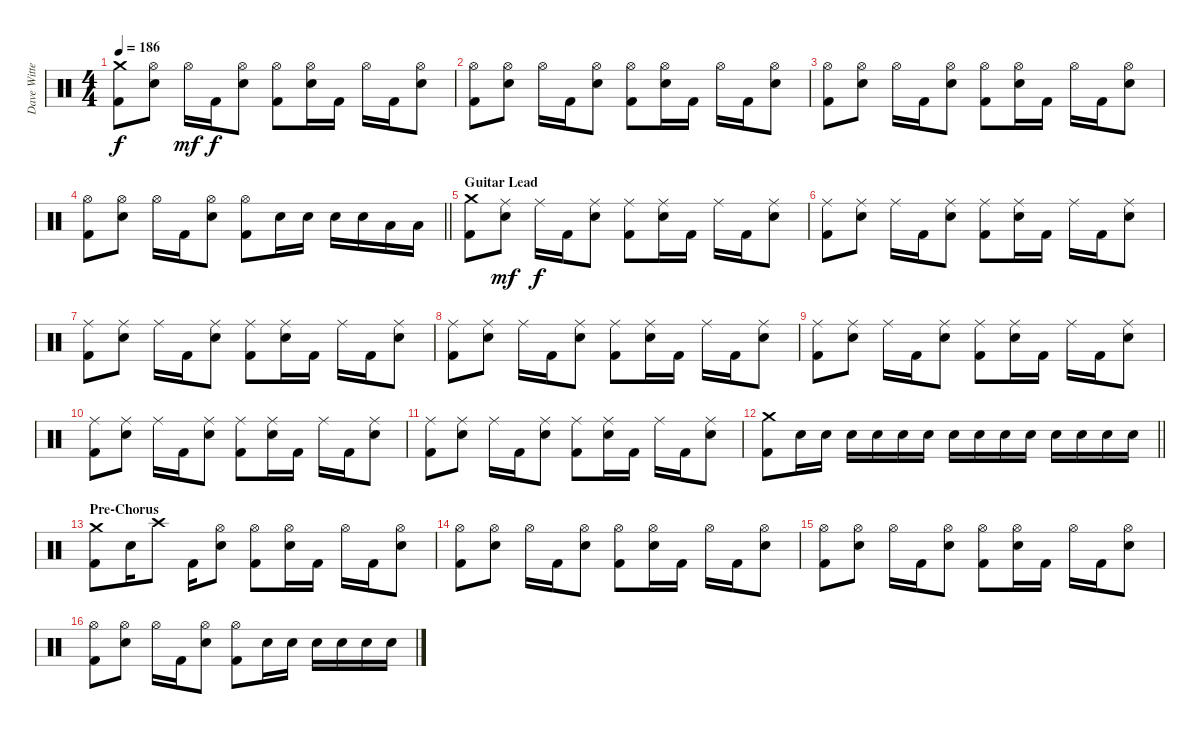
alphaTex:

\track ("Dave Witte" "Dave Witte") {instrument percussion}
\staff {score}
\articulation defaults
\ts (4 4)
\tempo 186
\clef neutral
\ks c
("Crash medium (hit)" "Kick (hit) 2").8{dy f} ("Hi-Hat (open)" "Electric Snare (hit)").8 "Hi-Hat (open)".16{dy mf} "Kick (hit) 2".16{dy f} ("Hi-Hat (open)" "Electric Snare (hit)").8 ("Hi-Hat (open)" "Kick (hit) 2").8 ("Hi-Hat (open)" "Electric Snare (hit)").16 "Kick (hit) 2".16 "Hi-Hat (open)".16 "Kick (hit) 2".16 ("Hi-Hat (open)" "Electric Snare (hit)").8 |
("Hi-Hat (open)" "Kick (hit) 2").8 ("Hi-Hat (open)" "Electric Snare (hit)").8 "Hi-Hat (open)".16 "Kick (hit) 2".16 ("Hi-Hat (open)" "Electric Snare (hit)").8 ("Hi-Hat (open)" "Kick (hit) 2").8 ("Hi-Hat (open)" "Electric Snare (hit)").16 "Kick (hit) 2".16 "Hi-Hat (open)".16 "Kick (hit) 2".16 ("Hi-Hat (open)" "Electric Snare (hit)").8 |
("Hi-Hat (open)" "Kick (hit) 2").8 ("Hi-Hat (open)" "Electric Snare (hit)").8 "Hi-Hat (open)".16 "Kick (hit) 2".16 ("Hi-Hat (open)" "Electric Snare (hit)").8 ("Hi-Hat (open)" "Kick (hit) 2").8 ("Hi-Hat (open)" "Electric Snare (hit)").16 "Kick (hit) 2".16 "Hi-Hat (open)".16 "Kick (hit) 2".16 ("Hi-Hat (open)" "Electric Snare (hit)").8 |
\barLineRight lightlight
("Hi-Hat (open)" "Kick (hit) 2").8 ("Hi-Hat (open)" "Electric Snare (hit)").8 "Hi-Hat (open)".16 "Kick (hit) 2".16 ("Hi-Hat (open)" "Electric Snare (hit)").8 ("Hi-Hat (open)" "Kick (hit) 2").8 "Electric Snare (hit)".16 "Electric Snare (hit)".16 "Electric Snare (hit)".16 "Electric Snare (hit)".16 "Low Tom (hit)".16 "Low Tom (hit)".16 |
\section ("" "Guitar Lead")
("Crash medium (hit)" "Kick (hit) 2").8 ("Ride (middle)" "Electric Snare (hit)").8{dy mf} "Ride (middle)".16{dy f} "Kick (hit) 2".16 ("Ride (middle)" "Electric Snare (hit)").8 ("Ride (middle)" "Kick (hit) 2").8 ("Ride (middle)" "Electric Snare (hit)").16 "Kick (hit) 2".16 "Ride (middle)".16 "Kick (hit) 2".16 ("Ride (middle)" "Electric Snare (hit)").8 |
("Ride (middle)" "Kick (hit) 2").8 ("Ride (middle)" "Electric Snare (hit)").8 "Ride (middle)".16 "Kick (hit) 2".16 ("Ride (middle)" "Electric Snare (hit)").8 ("Ride (middle)" "Kick (hit) 2").8 ("Ride (middle)" "Electric Snare (hit)").16 "Kick (hit) 2".16 "Ride (middle)".16 "Kick (hit) 2".16 ("Ride (middle)" "Electric Snare (hit)").8 |
("Ride (middle)" "Kick (hit) 2").8 ("Ride (middle)" "Electric Snare (hit)").8 "Ride (middle)".16 "Kick (hit) 2".16 ("Ride (middle)" "Electric Snare (hit)").8 ("Ride (middle)" "Kick (hit) 2").8 ("Ride (middle)" "Electric Snare (hit)").16 "Kick (hit) 2".16 "Ride (middle)".16 "Kick (hit) 2".16 ("Ride (middle)" "Electric Snare (hit)").8 |
("Ride (middle)" "Kick (hit) 2").8 ("Ride (middle)" "Electric Snare (hit)").8 "Ride (middle)".16 "Kick (hit) 2".16 ("Ride (middle)" "Electric Snare (hit)").8 ("Ride (middle)" "Kick (hit) 2").8 ("Ride (middle)" "Electric Snare (hit)").16 "Kick (hit) 2".16 "Ride (middle)".16 "Kick (hit) 2".16 ("Ride (middle)" "Electric Snare (hit)").8 |
("Ride (middle)" "Kick (hit) 2").8 ("Ride (middle)" "Electric Snare (hit)").8 "Ride (middle)".16 "Kick (hit) 2".16 ("Ride (middle)" "Electric Snare (hit)").8 ("Ride (middle)" "Kick (hit) 2").8 ("Ride (middle)" "Electric Snare (hit)").16 "Kick (hit) 2".16 "Ride (middle)".16 "Kick (hit) 2".16 ("Ride (middle)" "Electric Snare (hit)").8 |
("Ride (middle)" "Kick (hit) 2").8 ("Ride (middle)" "Electric Snare (hit)").8 "Ride (middle)".16 "Kick (hit) 2".16 ("Ride (middle)" "Electric Snare (hit)").8 ("Ride (middle)" "Kick (hit) 2").8 ("Ride (middle)" "Electric Snare (hit)").16 "Kick (hit) 2".16 "Ride (middle)".16 "Kick (hit) 2".16 ("Ride (middle)" "Electric Snare (hit)").8 |
("Ride (middle)" "Kick (hit) 2").8 ("Ride (middle)" "Electric Snare (hit)").8 "Ride (middle)".16 "Kick (hit) 2".16 ("Ride (middle)" "Electric Snare (hit)").8 ("Ride (middle)" "Kick (hit) 2").8 ("Ride (middle)" "Electric Snare (hit)").16 "Kick (hit) 2".16 "Ride (middle)".16 "Kick (hit) 2".16 ("Ride (middle)" "Electric Snare (hit)").8 |
\barLineRight lightlight
("Crash medium (hit)" "Kick (hit) 2").8 "Electric Snare (hit)".16 "Electric Snare (hit)".16 "Electric Snare (hit)".16 "Electric Snare (hit)".16 "Electric Snare (hit)".16 "Electric Snare (hit)".16 "Electric Snare (hit)".16 "Electric Snare (hit)".16 "Electric Snare (hit)".16 "Electric Snare (hit)".16 "Electric Snare (hit)".16 "Electric Snare (hit)".16 "Electric Snare (hit)".16 "Electric Snare (hit)".16 |
\section ("" "Pre-Chorus")
("Crash medium (hit)" "Kick (hit) 2").8 "Electric Snare (hit)".16 "Crash high (hit)".8 "Kick (hit) 2".16 ("Hi-Hat (open)" "Electric Snare (hit)").8 ("Hi-Hat (open)" "Kick (hit) 2").8 ("Hi-Hat (open)" "Electric Snare (hit)").16 "Kick (hit) 2".16 "Hi-Hat (open)".16 "Kick (hit) 2".16 ("Hi-Hat (open)" "Electric Snare (hit)").8 |
("Hi-Hat (open)" "Kick (hit) 2").8 ("Hi-Hat (open)" "Electric Snare (hit)").8 "Hi-Hat (open)".16 "Kick (hit) 2".16 ("Hi-Hat (open)" "Electric Snare (hit)").8 ("Hi-Hat (open)" "Kick (hit) 2").8 ("Hi-Hat (open)" "Electric Snare (hit)").16 "Kick (hit) 2".16 "Hi-Hat (open)".16 "Kick (hit) 2".16 ("Hi-Hat (open)" "Electric Snare (hit)").8 |
("Hi-Hat (open)" "Kick (hit) 2").8 ("Hi-Hat (open)" "Electric Snare (hit)").8 "Hi-Hat (open)".16 "Kick (hit) 2".16 ("Hi-Hat (open)" "Electric Snare (hit)").8 ("Hi-Hat (open)" "Kick (hit) 2").8 ("Hi-Hat (open)" "Electric Snare (hit)").16 "Kick (hit) 2".16 "Hi-Hat (open)".16 "Kick (hit) 2".16 ("Hi-Hat (open)" "Electric Snare (hit)").8 |
("Hi-Hat (open)" "Kick (hit) 2").8 ("Hi-Hat (open)" "Electric Snare (hit)").8 "Hi-Hat (open)".16 "Kick (hit) 2".16 ("Hi-Hat (open)" "Electric Snare (hit)").8 ("Hi-Hat (open)" "Kick (hit) 2").8 "Electric Snare (hit)".16 "Electric Snare (hit)".16 "Electric Snare (hit)".16 "Electric Snare (hit)".16 "Electric Snare (hit)".16 "Electric Snare (hit)".16
